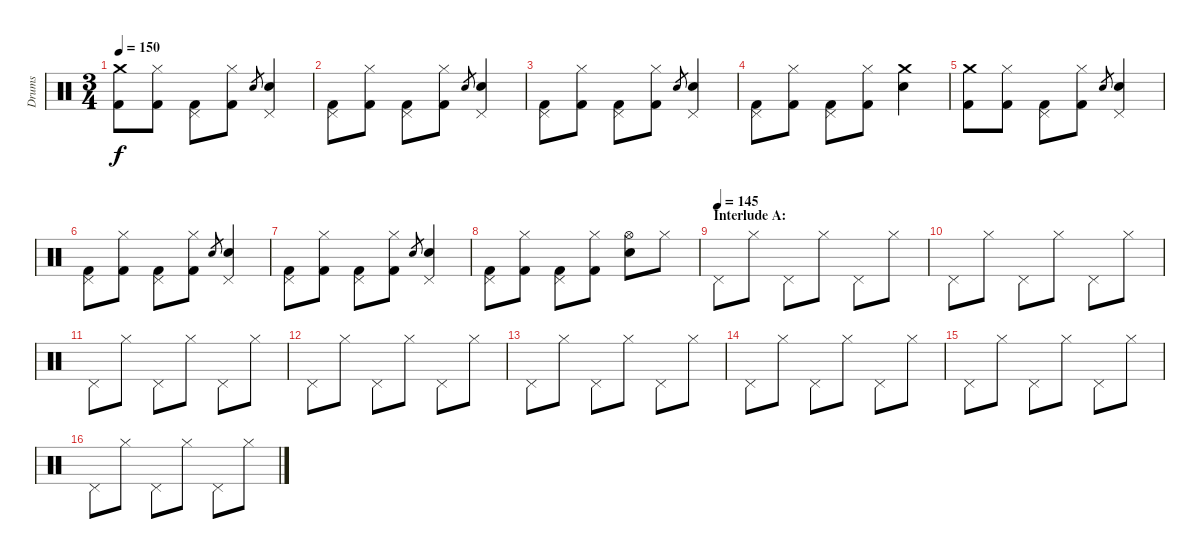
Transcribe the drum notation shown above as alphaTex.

\track ("Drums" "Drums") {instrument percussion}
\staff {score}
\articulation defaults
\ts (3 4)
\tempo 150
\clef neutral
\ks c
("Crash medium (hit)" "Kick (hit) 2").8{dy f} ("Hi-Hat (closed)" "Kick (hit) 2").8 ("Pedal Hi-Hat (hit)" "Kick (hit) 2").8 ("Hi-Hat (closed)" "Kick (hit) 2").8 "Electric Snare (hit)".8{gr} ("Pedal Hi-Hat (hit)" "Electric Snare (hit)").4 |
("Pedal Hi-Hat (hit)" "Kick (hit) 2").8 ("Hi-Hat (closed)" "Kick (hit) 2").8 ("Pedal Hi-Hat (hit)" "Kick (hit) 2").8 ("Hi-Hat (closed)" "Kick (hit) 2").8 "Electric Snare (hit)".8{gr} ("Pedal Hi-Hat (hit)" "Electric Snare (hit)").4 |
("Pedal Hi-Hat (hit)" "Kick (hit) 2").8 ("Hi-Hat (closed)" "Kick (hit) 2").8 ("Pedal Hi-Hat (hit)" "Kick (hit) 2").8 ("Hi-Hat (closed)" "Kick (hit) 2").8 "Electric Snare (hit)".8{gr} ("Pedal Hi-Hat (hit)" "Electric Snare (hit)").4 |
("Pedal Hi-Hat (hit)" "Kick (hit) 2").8 ("Hi-Hat (closed)" "Kick (hit) 2").8 ("Pedal Hi-Hat (hit)" "Kick (hit) 2").8 ("Hi-Hat (closed)" "Kick (hit) 2").8 ("Crash medium (hit)" "Electric Snare (hit)").4 |
("Crash medium (hit)" "Kick (hit) 2").8 ("Hi-Hat (closed)" "Kick (hit) 2").8 ("Pedal Hi-Hat (hit)" "Kick (hit) 2").8 ("Hi-Hat (closed)" "Kick (hit) 2").8 "Electric Snare (hit)".8{gr} ("Pedal Hi-Hat (hit)" "Electric Snare (hit)").4 |
("Pedal Hi-Hat (hit)" "Kick (hit) 2").8 ("Hi-Hat (closed)" "Kick (hit) 2").8 ("Pedal Hi-Hat (hit)" "Kick (hit) 2").8 ("Hi-Hat (closed)" "Kick (hit) 2").8 "Electric Snare (hit)".8{gr} ("Pedal Hi-Hat (hit)" "Electric Snare (hit)").4 |
("Pedal Hi-Hat (hit)" "Kick (hit) 2").8 ("Hi-Hat (closed)" "Kick (hit) 2").8 ("Pedal Hi-Hat (hit)" "Kick (hit) 2").8 ("Hi-Hat (closed)" "Kick (hit) 2").8 "Electric Snare (hit)".8{gr} ("Pedal Hi-Hat (hit)" "Electric Snare (hit)").4 |
("Pedal Hi-Hat (hit)" "Kick (hit) 2").8 ("Hi-Hat (closed)" "Kick (hit) 2").8 ("Pedal Hi-Hat (hit)" "Kick (hit) 2").8 ("Hi-Hat (closed)" "Kick (hit) 2").8 ("Hi-Hat (open)" "Electric Snare (hit)").8 "Hi-Hat (closed)".8 |
\section ("" "Interlude A:")
\tempo (145)
"Pedal Hi-Hat (hit)".8 "Hi-Hat (closed)".8 "Pedal Hi-Hat (hit)".8 "Hi-Hat (closed)".8 "Pedal Hi-Hat (hit)".8 "Hi-Hat (closed)".8 |
"Pedal Hi-Hat (hit)".8 "Hi-Hat (closed)".8 "Pedal Hi-Hat (hit)".8 "Hi-Hat (closed)".8 "Pedal Hi-Hat (hit)".8 "Hi-Hat (closed)".8 |
"Pedal Hi-Hat (hit)".8 "Hi-Hat (closed)".8 "Pedal Hi-Hat (hit)".8 "Hi-Hat (closed)".8 "Pedal Hi-Hat (hit)".8 "Hi-Hat (closed)".8 |
"Pedal Hi-Hat (hit)".8 "Hi-Hat (closed)".8 "Pedal Hi-Hat (hit)".8 "Hi-Hat (closed)".8 "Pedal Hi-Hat (hit)".8 "Hi-Hat (closed)".8 |
"Pedal Hi-Hat (hit)".8 "Hi-Hat (closed)".8 "Pedal Hi-Hat (hit)".8 "Hi-Hat (closed)".8 "Pedal Hi-Hat (hit)".8 "Hi-Hat (closed)".8 |
"Pedal Hi-Hat (hit)".8 "Hi-Hat (closed)".8 "Pedal Hi-Hat (hit)".8 "Hi-Hat (closed)".8 "Pedal Hi-Hat (hit)".8 "Hi-Hat (closed)".8 |
"Pedal Hi-Hat (hit)".8 "Hi-Hat (closed)".8 "Pedal Hi-Hat (hit)".8 "Hi-Hat (closed)".8 "Pedal Hi-Hat (hit)".8 "Hi-Hat (closed)".8 |
"Pedal Hi-Hat (hit)".8 "Hi-Hat (closed)".8 "Pedal Hi-Hat (hit)".8 "Hi-Hat (closed)".8 "Pedal Hi-Hat (hit)".8 "Hi-Hat (closed)".8
